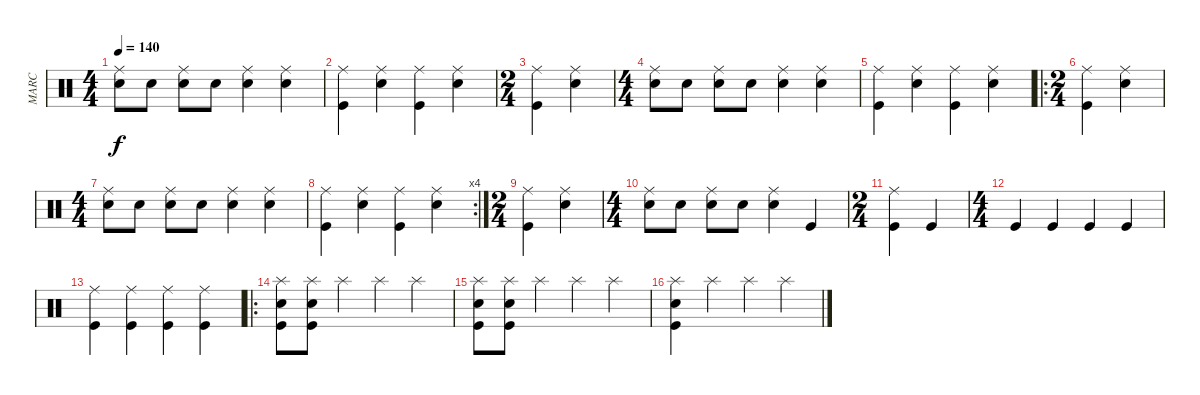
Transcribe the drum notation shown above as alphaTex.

\track ("MARC" "MARC") {instrument percussion}
\staff {score}
\articulation defaults
\ts (4 4)
\tempo 140
\clef neutral
\ks c
("Snare (hit) 2" "Ride (middle)").8{dy f} "Snare (hit) 2".8 ("Snare (hit) 2" "Ride (middle)").8 "Snare (hit) 2".8 ("Snare (hit) 2" "Ride (middle)").4 ("Snare (hit) 2" "Ride (middle)").4 |
("Kick (hit)" "Ride (middle)").4 ("Snare (hit) 2" "Ride (middle)").4 ("Kick (hit)" "Ride (middle)").4 ("Snare (hit) 2" "Ride (middle)").4 |
\ts (2 4)
("Kick (hit)" "Ride (middle)").4 ("Snare (hit) 2" "Ride (middle)").4 |
\ts (4 4)
("Snare (hit) 2" "Ride (middle)").8 "Snare (hit) 2".8 ("Snare (hit) 2" "Ride (middle)").8 "Snare (hit) 2".8 ("Snare (hit) 2" "Ride (middle)").4 ("Snare (hit) 2" "Ride (middle)").4 |
("Kick (hit)" "Ride (middle)").4 ("Snare (hit) 2" "Ride (middle)").4 ("Kick (hit)" "Ride (middle)").4 ("Snare (hit) 2" "Ride (middle)").4 |
\ro
\ts (2 4)
("Kick (hit)" "Ride (middle)").4 ("Snare (hit) 2" "Ride (middle)").4 |
\ts (4 4)
("Snare (hit) 2" "Ride (middle)").8 "Snare (hit) 2".8 ("Snare (hit) 2" "Ride (middle)").8 "Snare (hit) 2".8 ("Snare (hit) 2" "Ride (middle)").4 ("Snare (hit) 2" "Ride (middle)").4 |
\rc 4
("Kick (hit)" "Ride (middle)").4 ("Snare (hit) 2" "Ride (middle)").4 ("Kick (hit)" "Ride (middle)").4 ("Snare (hit) 2" "Ride (middle)").4 |
\ts (2 4)
("Kick (hit)" "Ride (middle)").4 ("Snare (hit) 2" "Ride (middle)").4 |
\ts (4 4)
("Snare (hit) 2" "Ride (middle)").8 "Snare (hit) 2".8 ("Snare (hit) 2" "Ride (middle)").8 "Snare (hit) 2".8 ("Snare (hit) 2" "Ride (middle)").4 "Kick (hit)".4 |
\ts (2 4)
("Kick (hit)" "Ride (middle)").4 "Kick (hit)".4 |
\ts (4 4)
"Kick (hit)".4 "Kick (hit)".4 "Kick (hit)".4 "Kick (hit)".4 |
("Kick (hit)" "Ride (middle)").4 ("Kick (hit)" "Ride (middle)").4 ("Kick (hit)" "Ride (middle)").4 ("Kick (hit)" "Ride (middle)").4 |
\ro
("Snare (hit) 2" "Kick (hit)" "Splash (hit)").8 ("Snare (hit) 2" "Kick (hit)" "Splash (hit)").8 "Splash (hit)".4 "Splash (hit)".4 "Splash (hit)".4 |
("Snare (hit) 2" "Kick (hit)" "Splash (hit)").8 ("Snare (hit) 2" "Kick (hit)" "Splash (hit)").8 "Splash (hit)".4 "Splash (hit)".4 "Splash (hit)".4 |
("Snare (hit) 2" "Kick (hit)" "Splash (hit)").4 "Splash (hit)".4 "Splash (hit)".4 "Splash (hit)".4
